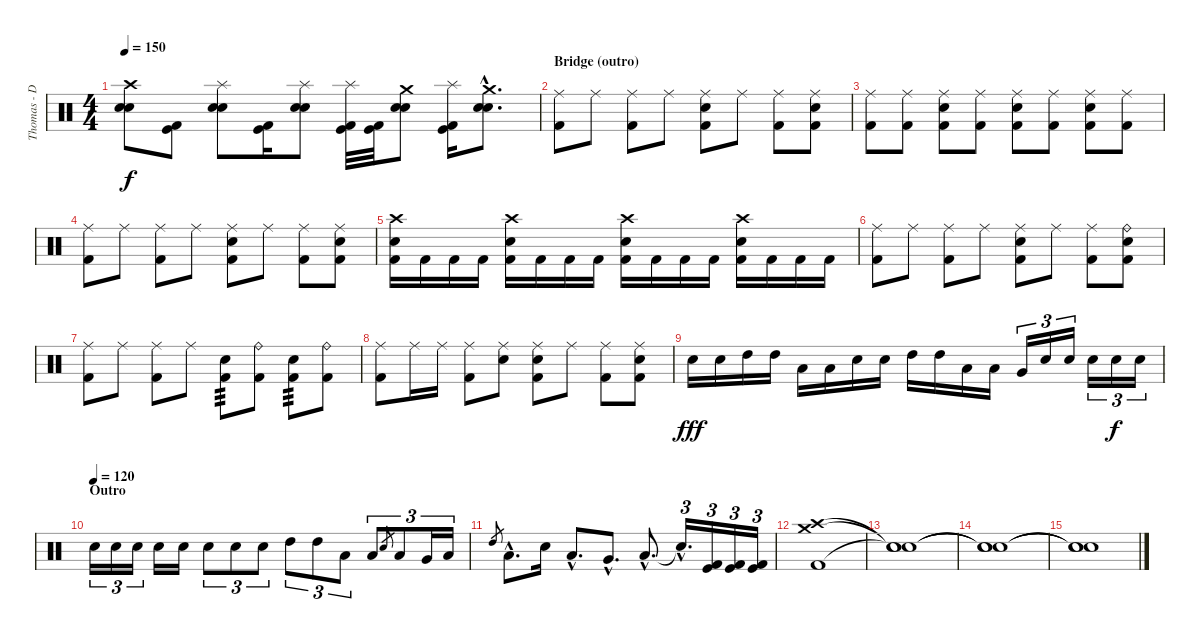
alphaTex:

\track ("Thomas - Dr00mz" "Thomas - D") {instrument percussion}
\staff {score}
\articulation defaults
\ts (4 4)
\tempo 150
\clef neutral
\ks c
("Crash high (hit)" "Electric Snare (hit)" "Electric Snare (hit)").8{dy f} ("Kick (hit)" "Kick (hit) 2").8 ("Splash (hit)" "Electric Snare (hit)" "Electric Snare (hit)").8 ("Kick (hit)" "Kick (hit) 2").16 ("Splash (hit)" "Electric Snare (hit)" "Electric Snare (hit)").8 ("Splash (hit)" "Kick (hit)" "Kick (hit) 2").32 ("Kick (hit)" "Kick (hit) 2").32 ("Crash medium (hit)" "Electric Snare (hit)" "Electric Snare (hit)").8 ("Splash (hit)" "Kick (hit)" "Kick (hit) 2").16 ("Crash medium (hit)"{hac} "Electric Snare (hit)"{hac} "Electric Snare (hit)"{hac}).8{d} |
\section ("" "Bridge (outro)")
("Ride (middle)" "Kick (hit) 2").8 "Ride (middle)".8 ("Ride (middle)" "Kick (hit) 2").8 "Ride (middle)".8 ("Ride (middle)" "Electric Snare (hit)" "Kick (hit) 2").8 "Ride (middle)".8 ("Ride (middle)" "Kick (hit) 2").8 ("Ride (middle)" "Electric Snare (hit)" "Kick (hit) 2").8 |
("Ride (middle)" "Kick (hit) 2").8 ("Ride (middle)" "Kick (hit) 2").8 ("Ride (middle)" "Electric Snare (hit)" "Kick (hit) 2").8 ("Ride (middle)" "Kick (hit) 2").8 ("Ride (middle)" "Electric Snare (hit)" "Kick (hit) 2").8 ("Ride (middle)" "Kick (hit) 2").8 ("Ride (middle)" "Electric Snare (hit)" "Kick (hit) 2").8 ("Ride (middle)" "Kick (hit) 2").8 |
("Ride (middle)" "Kick (hit) 2").8 "Ride (middle)".8 ("Ride (middle)" "Kick (hit) 2").8 "Ride (middle)".8 ("Ride (middle)" "Electric Snare (hit)" "Kick (hit) 2").8 "Ride (middle)".8 ("Ride (middle)" "Kick (hit) 2").8 ("Ride (middle)" "Electric Snare (hit)" "Kick (hit) 2").8 |
("Crash high (hit)" "Electric Snare (hit)" "Kick (hit) 2").16 "Kick (hit) 2".16 "Kick (hit) 2".16 "Kick (hit) 2".16 ("Crash high (hit)" "Electric Snare (hit)" "Kick (hit) 2").16 "Kick (hit) 2".16 "Kick (hit) 2".16 "Kick (hit) 2".16 ("Crash high (hit)" "Electric Snare (hit)" "Kick (hit) 2").16 "Kick (hit) 2".16 "Kick (hit) 2".16 "Kick (hit) 2".16 ("Crash high (hit)" "Electric Snare (hit)" "Kick (hit) 2").16 "Kick (hit) 2".16 "Kick (hit) 2".16 "Kick (hit) 2".16 |
("Ride (middle)" "Kick (hit) 2").8 "Ride (middle)".8 ("Ride (middle)" "Kick (hit) 2").8 "Ride (middle)".8 ("Ride (middle)" "Electric Snare (hit)" "Kick (hit) 2").8 "Ride (middle)".8 ("Ride (middle)" "Kick (hit) 2").8 ("Ride (bell)" "Electric Snare (hit)" "Kick (hit) 2").8 |
("Ride (middle)" "Kick (hit) 2").8 "Ride (middle)".8 ("Ride (middle)" "Kick (hit) 2").8 "Ride (middle)".8 ("Electric Snare (hit)" "Kick (hit) 2").8{tp 3} ("Ride (bell)" "Kick (hit) 2").8 ("Electric Snare (hit)" "Kick (hit) 2").8{tp 3} ("Ride (bell)" "Kick (hit) 2").8 |
("Ride (middle)" "Kick (hit) 2").8 "Ride (middle)".16 "Ride (middle)".16 ("Ride (middle)" "Kick (hit) 2").8 ("Ride (middle)" "Electric Snare (hit)").8 ("Ride (middle)" "Electric Snare (hit)" "Kick (hit) 2").8 "Ride (middle)".8 ("Ride (middle)" "Kick (hit) 2").8 ("Ride (middle)" "Electric Snare (hit)" "Kick (hit) 2").8 |
"Electric Snare (hit)".16{dy fff} "Electric Snare (hit)".16 "High Tom (hit)".16 "High Tom (hit)".16 "Low Tom (hit)".16 "Low Tom (hit)".16 "Electric Snare (hit)".16 "Electric Snare (hit)".16 "High Tom (hit)".16 "High Tom (hit)".16 "Low Tom (hit)".16 "Low Tom (hit)".16 "Very Low Tom (hit)".16{tu (3 2)} "Electric Snare (hit)".16{tu (3 2)} "Electric Snare (hit)".16{tu (3 2)} "Electric Snare (hit)".16{tu (3 2)} "Electric Snare (hit)".16{tu (3 2) dy f} "Electric Snare (hit)".16{tu (3 2)} |
\section ("" "Outro")
\tempo (120)
"Electric Snare (hit)".16{tu (3 2)} "Electric Snare (hit)".16{tu (3 2)} "Electric Snare (hit)".16{tu (3 2)} "Electric Snare (hit)".16 "Electric Snare (hit)".16 "Electric Snare (hit)".8{tu (3 2)} "Electric Snare (hit)".8{tu (3 2)} "Electric Snare (hit)".8{tu (3 2)} "High Tom (hit)".8{tu (3 2)} "High Tom (hit)".8{tu (3 2)} "Low Tom (hit)".8{tu (3 2)} "Low Tom (hit)".8{tu (3 2)} "Electric Snare (hit)".8{gr} "Low Tom (hit)".8{tu (3 2)} "Very Low Tom (hit)".16{tu (3 2)} "Low Tom (hit)".16{tu (3 2)} |
"High Tom (hit)".8{gr} "Low Tom (hit)"{hac}.8{d} "Electric Snare (hit)".16 "Low Tom (hit)"{hac}.8{d} "Very Low Tom (hit)"{hac}.8{d} "Low Floor Tom (hit)"{hac}.8{d} "Snare (hit)"{hac t}.16{d tu (3 2)} ("Kick (hit)" "Kick (hit) 2").16{tu (3 2)} ("Kick (hit)" "Kick (hit) 2").16{tu (3 2)} ("Kick (hit)" "Kick (hit) 2").16{tu (3 2)} |
("Crash medium (hit)" "Crash high (hit)" "Kick (hit) 2").1 |
("Snare (hit)"{t} "Snare (hit)"{t} "Snare (hit)"{t}).1 |
("Snare (hit)"{t} "Snare (hit)"{t} "Snare (hit)"{t}).1 |
("Snare (hit)"{t} "Snare (hit)"{t} "Snare (hit)"{t}).1
